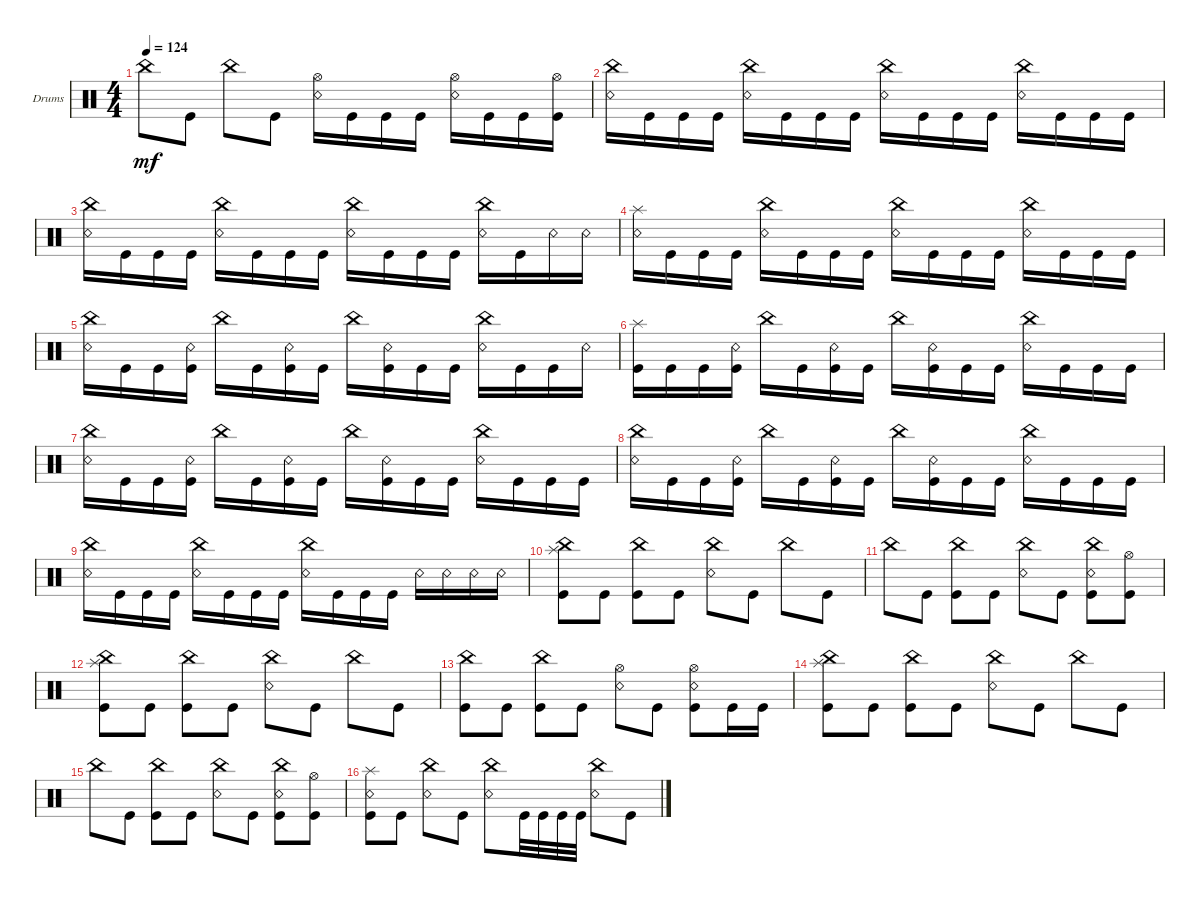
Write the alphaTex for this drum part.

\defaultSystemsLayout 4
\bracketExtendMode groupsimilarinstruments
\firstSystemTrackNameOrientation horizontal
\otherSystemsTrackNameOrientation horizontal
\track ("Drums" "Drums") {instrument percussion}
\staff {score}
\articulation defaults
\ts (4 4)
\tempo 124
\clef neutral
\ks c "China (hit)".8{dy mf} "Kick (hit)".8 "China (hit)".8 "Kick (hit)".8
("Snare (rim shot)" "Hi-Hat (open)").16 "Kick (hit)".16 "Kick (hit)".16 "Kick (hit)".16 ("Snare (rim shot)" "Hi-Hat (open)").16 "Kick (hit)".16 "Kick (hit)".16 ("Kick (hit)" "Hi-Hat (open)").16 |
("Snare (rim shot)" "China (hit)").16 "Kick (hit)".16 "Kick (hit)".16 "Kick (hit)".16 ("Snare (rim shot)" "China (hit)").16 "Kick (hit)".16 "Kick (hit)".16 "Kick (hit)".16 ("Snare (rim shot)" "China (hit)").16 "Kick (hit)".16 "Kick (hit)".16 "Kick (hit)".16 ("Snare (rim shot)" "China (hit)").16 "Kick (hit)".16 "Kick (hit)".16 "Kick (hit)".16 |
("Snare (rim shot)" "China (hit)").16 "Kick (hit)".16 "Kick (hit)".16 "Kick (hit)".16 ("Snare (rim shot)" "China (hit)").16 "Kick (hit)".16 "Kick (hit)".16 "Kick (hit)".16 ("Snare (rim shot)" "China (hit)").16 "Kick (hit)".16 "Kick (hit)".16 "Kick (hit)".16 ("Snare (rim shot)" "China (hit)").16 "Kick (hit)".16 "Snare (rim shot)".16 "Snare (rim shot)".16 |
("Snare (rim shot)" "Splash (hit)").16 "Kick (hit)".16 "Kick (hit)".16 "Kick (hit)".16 ("Snare (rim shot)" "China (hit)").16 "Kick (hit)".16 "Kick (hit)".16 "Kick (hit)".16 ("Snare (rim shot)" "China (hit)").16 "Kick (hit)".16 "Kick (hit)".16 "Kick (hit)".16 ("Snare (rim shot)" "China (hit)").16 "Kick (hit)".16 "Kick (hit)".16 "Kick (hit)".16 |
("Snare (rim shot)" "China (hit)").16 "Kick (hit)".16 "Kick (hit)".16 ("Kick (hit)" "Snare (rim shot)").16 "China (hit)".16 "Kick (hit)".16 ("Kick (hit)" "Snare (rim shot)").16 "Kick (hit)".16 "China (hit)".16 ("Kick (hit)" "Snare (rim shot)").16 "Kick (hit)".16 "Kick (hit)".16 ("China (hit)" "Snare (rim shot)").16 "Kick (hit)".16 "Kick (hit)".16 "Snare (rim shot)".16 |
("Splash (hit)" "Kick (hit)").16 "Kick (hit)".16 "Kick (hit)".16 ("Kick (hit)" "Snare (rim shot)").16 "China (hit)".16 "Kick (hit)".16 ("Kick (hit)" "Snare (rim shot)").16 "Kick (hit)".16 "China (hit)".16 ("Kick (hit)" "Snare (rim shot)").16 "Kick (hit)".16 "Kick (hit)".16 ("China (hit)" "Snare (rim shot)").16 "Kick (hit)".16 "Kick (hit)".16 "Kick (hit)".16 |
("Snare (rim shot)" "China (hit)").16 "Kick (hit)".16 "Kick (hit)".16 ("Kick (hit)" "Snare (rim shot)").16 "China (hit)".16 "Kick (hit)".16 ("Kick (hit)" "Snare (rim shot)").16 "Kick (hit)".16 "China (hit)".16 ("Kick (hit)" "Snare (rim shot)").16 "Kick (hit)".16 "Kick (hit)".16 ("China (hit)" "Snare (rim shot)").16 "Kick (hit)".16 "Kick (hit)".16 "Kick (hit)".16 |
("Snare (rim shot)" "China (hit)").16 "Kick (hit)".16 "Kick (hit)".16 ("Kick (hit)" "Snare (rim shot)").16 "China (hit)".16 "Kick (hit)".16 ("Kick (hit)" "Snare (rim shot)").16 "Kick (hit)".16 "China (hit)".16 ("Kick (hit)" "Snare (rim shot)").16 "Kick (hit)".16 "Kick (hit)".16 ("China (hit)" "Snare (rim shot)").16 "Kick (hit)".16 "Kick (hit)".16 "Kick (hit)".16 |
("Snare (rim shot)" "China (hit)").16 "Kick (hit)".16 "Kick (hit)".16 "Kick (hit)".16 ("Snare (rim shot)" "China (hit)").16 "Kick (hit)".16 "Kick (hit)".16 "Kick (hit)".16 ("Snare (rim shot)" "China (hit)").16 "Kick (hit)".16 "Kick (hit)".16 "Kick (hit)".16 "Snare (rim shot)".16 "Snare (rim shot)".16 "Snare (rim shot)".16 "Snare (rim shot)".16 |
("Kick (hit)" "China (hit)" "Splash (hit)").8 "Kick (hit)".8 ("Kick (hit)" "China (hit)").8 "Kick (hit)".8 ("Snare (rim shot)" "China (hit)").8 "Kick (hit)".8 "China (hit)".8 "Kick (hit)".8 |
"China (hit)".8 "Kick (hit)".8 ("Kick (hit)" "China (hit)").8 "Kick (hit)".8 ("Snare (rim shot)" "China (hit)").8 "Kick (hit)".8 ("Kick (hit)" "China (hit)" "Snare (rim shot)").8 ("Kick (hit)" "Hi-Hat (open)").8 |
("Kick (hit)" "China (hit)" "Splash (hit)").8 "Kick (hit)".8 ("Kick (hit)" "China (hit)").8 "Kick (hit)".8 ("Snare (rim shot)" "China (hit)").8 "Kick (hit)".8 "China (hit)".8 "Kick (hit)".8 |
("Kick (hit)" "China (hit)").8 "Kick (hit)".8 ("Kick (hit)" "China (hit)").8 "Kick (hit)".8 ("Snare (rim shot)" "Hi-Hat (open)").8 "Kick (hit)".8 ("Kick (hit)" "Snare (rim shot)" "Hi-Hat (open)").8 "Kick (hit)".16 "Kick (hit)".16 |
("Kick (hit)" "China (hit)" "Splash (hit)").8 "Kick (hit)".8 ("Kick (hit)" "China (hit)").8 "Kick (hit)".8 ("Snare (rim shot)" "China (hit)").8 "Kick (hit)".8 "China (hit)".8 "Kick (hit)".8 |
"China (hit)".8 "Kick (hit)".8 ("Kick (hit)" "China (hit)").8 "Kick (hit)".8 ("Snare (rim shot)" "China (hit)").8 "Kick (hit)".8 ("Kick (hit)" "China (hit)" "Snare (rim shot)").8 ("Kick (hit)" "Hi-Hat (open)").8 |
("Snare (rim shot)" "Kick (hit)" "Splash (hit)").8 "Kick (hit)".8 ("Snare (rim shot)" "China (hit)").8 "Kick (hit)".8 ("Snare (rim shot)" "China (hit)").8 "Kick (hit)".32 "Kick (hit)".32 "Kick (hit)".32 "Kick (hit)".32 ("Snare (rim shot)" "China (hit)").8 "Kick (hit)".8
